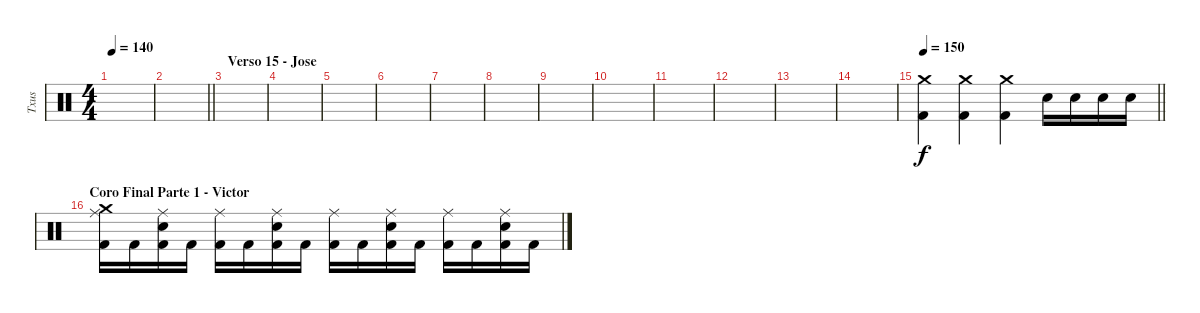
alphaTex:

\track ("Txus" "Txus") {instrument percussion}
\staff {score}
\articulation defaults
\ts (4 4)
\tempo 140
\clef neutral
\ks c
|
\barLineRight lightlight
|
\section ("" "Verso 15 - Jose")
|
|
|
|
|
|
|
|
|
|
|
|
\tempo 150
\barLineRight lightlight
("Crash medium (hit)" "Kick (hit) 2").4 ("Crash medium (hit)" "Kick (hit) 2").4 ("Crash medium (hit)" "Kick (hit) 2").4 "Electric Snare (hit)".16 "Electric Snare (hit)".16 "Electric Snare (hit)".16 "Electric Snare (hit)".16 |
\section ("" "Coro Final Parte 1 - Victor")
("Crash medium (hit)" "Ride (middle)" "Kick (hit) 2").16 "Kick (hit) 2".16 ("Ride (middle)" "Electric Snare (hit)" "Kick (hit) 2").16 "Kick (hit) 2".16 ("Ride (middle)" "Kick (hit) 2").16 "Kick (hit) 2".16 ("Ride (middle)" "Electric Snare (hit)" "Kick (hit) 2").16 "Kick (hit) 2".16 ("Ride (middle)" "Kick (hit) 2").16 "Kick (hit) 2".16 ("Ride (middle)" "Electric Snare (hit)" "Kick (hit) 2").16 "Kick (hit) 2".16 ("Ride (middle)" "Kick (hit) 2").16 "Kick (hit) 2".16 ("Ride (middle)" "Electric Snare (hit)" "Kick (hit) 2").16 "Kick (hit) 2".16
